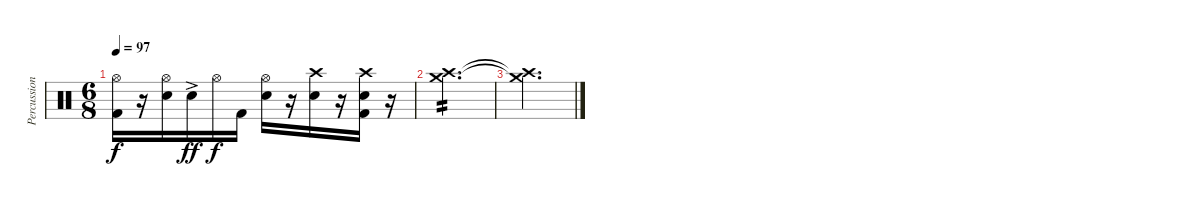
\track ("Percussion" "Percussion") {instrument percussion}
\staff {score}
\articulation defaults
\ts (6 8)
\tempo 97
\clef neutral
\ks c
("Hi-Hat (open)" "Kick (hit) 2").16{dy f} r.16 ("Hi-Hat (open)" "Electric Snare (hit)").16 "Electric Snare (hit)"{ac}.16{dy ff} "Hi-Hat (open)".16{dy f} "Kick (hit) 2".16 ("Hi-Hat (open)" "Electric Snare (hit)").16 r.16 ("Crash high (hit)" "Electric Snare (hit)").16 r.16 ("Crash high (hit)" "Electric Snare (hit)" "Kick (hit) 2").16 r.16 |
("Crash high (hit)" "Crash medium (hit)").2{d tp 2 volume 0} |
("Crash high (hit)"{t} "Crash medium (hit)"{t}).2{d}
